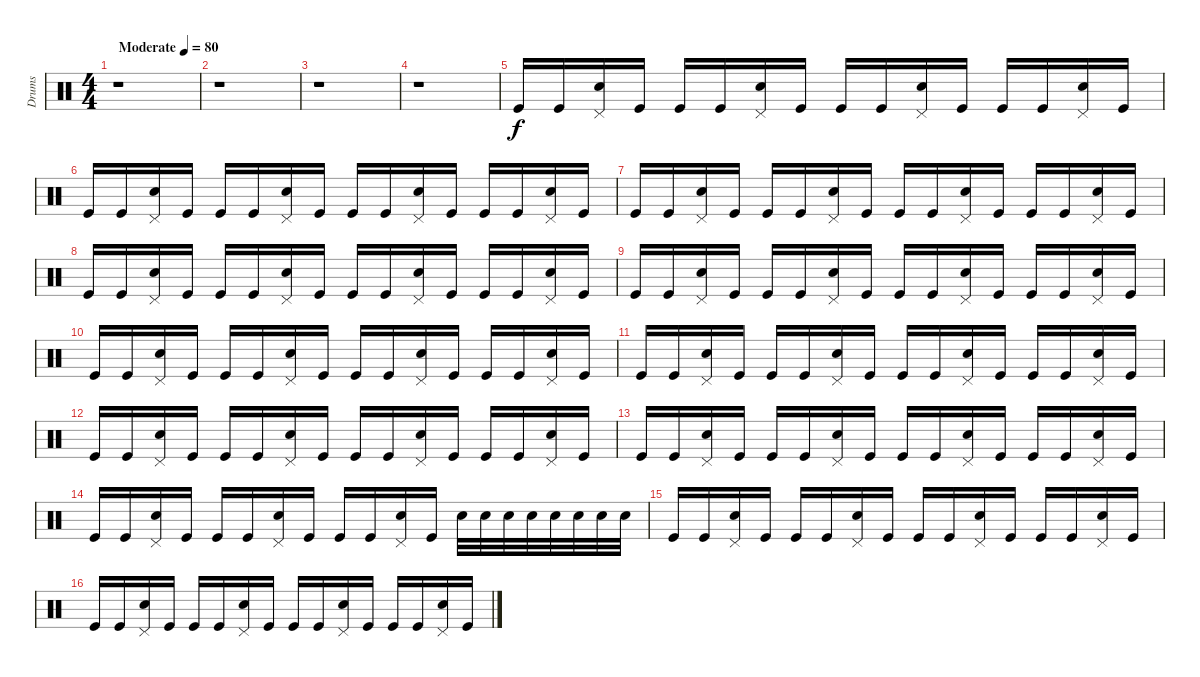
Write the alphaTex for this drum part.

\track ("Drums" "Drums") {instrument percussion}
\staff {score}
\articulation defaults
\ts (4 4)
\tempo (80 "Moderate")
\clef neutral
\ks c
r.1{dy f} |
r.1 |
r.1 |
r.1 |
"Kick (hit)".16 "Kick (hit)".16 ("Snare (hit) 2" "Pedal Hi-Hat (hit)").16 "Kick (hit)".16 "Kick (hit)".16 "Kick (hit)".16 ("Snare (hit) 2" "Pedal Hi-Hat (hit)").16 "Kick (hit)".16 "Kick (hit)".16 "Kick (hit)".16 ("Snare (hit) 2" "Pedal Hi-Hat (hit)").16 "Kick (hit)".16 "Kick (hit)".16 "Kick (hit)".16 ("Snare (hit) 2" "Pedal Hi-Hat (hit)").16 "Kick (hit)".16 |
"Kick (hit)".16 "Kick (hit)".16 ("Snare (hit) 2" "Pedal Hi-Hat (hit)").16 "Kick (hit)".16 "Kick (hit)".16 "Kick (hit)".16 ("Snare (hit) 2" "Pedal Hi-Hat (hit)").16 "Kick (hit)".16 "Kick (hit)".16 "Kick (hit)".16 ("Snare (hit) 2" "Pedal Hi-Hat (hit)").16 "Kick (hit)".16 "Kick (hit)".16 "Kick (hit)".16 ("Snare (hit) 2" "Pedal Hi-Hat (hit)").16 "Kick (hit)".16 |
"Kick (hit)".16 "Kick (hit)".16 ("Snare (hit) 2" "Pedal Hi-Hat (hit)").16 "Kick (hit)".16 "Kick (hit)".16 "Kick (hit)".16 ("Snare (hit) 2" "Pedal Hi-Hat (hit)").16 "Kick (hit)".16 "Kick (hit)".16 "Kick (hit)".16 ("Snare (hit) 2" "Pedal Hi-Hat (hit)").16 "Kick (hit)".16 "Kick (hit)".16 "Kick (hit)".16 ("Snare (hit) 2" "Pedal Hi-Hat (hit)").16 "Kick (hit)".16 |
"Kick (hit)".16 "Kick (hit)".16 ("Snare (hit) 2" "Pedal Hi-Hat (hit)").16 "Kick (hit)".16 "Kick (hit)".16 "Kick (hit)".16 ("Snare (hit) 2" "Pedal Hi-Hat (hit)").16 "Kick (hit)".16 "Kick (hit)".16 "Kick (hit)".16 ("Snare (hit) 2" "Pedal Hi-Hat (hit)").16 "Kick (hit)".16 "Kick (hit)".16 "Kick (hit)".16 ("Snare (hit) 2" "Pedal Hi-Hat (hit)").16 "Kick (hit)".16 |
"Kick (hit)".16 "Kick (hit)".16 ("Snare (hit) 2" "Pedal Hi-Hat (hit)").16 "Kick (hit)".16 "Kick (hit)".16 "Kick (hit)".16 ("Snare (hit) 2" "Pedal Hi-Hat (hit)").16 "Kick (hit)".16 "Kick (hit)".16 "Kick (hit)".16 ("Snare (hit) 2" "Pedal Hi-Hat (hit)").16 "Kick (hit)".16 "Kick (hit)".16 "Kick (hit)".16 ("Snare (hit) 2" "Pedal Hi-Hat (hit)").16 "Kick (hit)".16 |
"Kick (hit)".16 "Kick (hit)".16 ("Snare (hit) 2" "Pedal Hi-Hat (hit)").16 "Kick (hit)".16 "Kick (hit)".16 "Kick (hit)".16 ("Snare (hit) 2" "Pedal Hi-Hat (hit)").16 "Kick (hit)".16 "Kick (hit)".16 "Kick (hit)".16 ("Snare (hit) 2" "Pedal Hi-Hat (hit)").16 "Kick (hit)".16 "Kick (hit)".16 "Kick (hit)".16 ("Snare (hit) 2" "Pedal Hi-Hat (hit)").16 "Kick (hit)".16 |
"Kick (hit)".16 "Kick (hit)".16 ("Snare (hit) 2" "Pedal Hi-Hat (hit)").16 "Kick (hit)".16 "Kick (hit)".16 "Kick (hit)".16 ("Snare (hit) 2" "Pedal Hi-Hat (hit)").16 "Kick (hit)".16 "Kick (hit)".16 "Kick (hit)".16 ("Snare (hit) 2" "Pedal Hi-Hat (hit)").16 "Kick (hit)".16 "Kick (hit)".16 "Kick (hit)".16 ("Snare (hit) 2" "Pedal Hi-Hat (hit)").16 "Kick (hit)".16 |
"Kick (hit)".16 "Kick (hit)".16 ("Snare (hit) 2" "Pedal Hi-Hat (hit)").16 "Kick (hit)".16 "Kick (hit)".16 "Kick (hit)".16 ("Snare (hit) 2" "Pedal Hi-Hat (hit)").16 "Kick (hit)".16 "Kick (hit)".16 "Kick (hit)".16 ("Snare (hit) 2" "Pedal Hi-Hat (hit)").16 "Kick (hit)".16 "Kick (hit)".16 "Kick (hit)".16 ("Snare (hit) 2" "Pedal Hi-Hat (hit)").16 "Kick (hit)".16 |
"Kick (hit)".16 "Kick (hit)".16 ("Snare (hit) 2" "Pedal Hi-Hat (hit)").16 "Kick (hit)".16 "Kick (hit)".16 "Kick (hit)".16 ("Snare (hit) 2" "Pedal Hi-Hat (hit)").16 "Kick (hit)".16 "Kick (hit)".16 "Kick (hit)".16 ("Snare (hit) 2" "Pedal Hi-Hat (hit)").16 "Kick (hit)".16 "Kick (hit)".16 "Kick (hit)".16 ("Snare (hit) 2" "Pedal Hi-Hat (hit)").16 "Kick (hit)".16 |
"Kick (hit)".16 "Kick (hit)".16 ("Snare (hit) 2" "Pedal Hi-Hat (hit)").16 "Kick (hit)".16 "Kick (hit)".16 "Kick (hit)".16 ("Snare (hit) 2" "Pedal Hi-Hat (hit)").16 "Kick (hit)".16 "Kick (hit)".16 "Kick (hit)".16 ("Snare (hit) 2" "Pedal Hi-Hat (hit)").16 "Kick (hit)".16 "Snare (hit) 2".32 "Snare (hit) 2".32 "Snare (hit) 2".32 "Snare (hit) 2".32 "Snare (hit) 2".32 "Snare (hit) 2".32 "Snare (hit) 2".32 "Snare (hit) 2".32 |
"Kick (hit)".16 "Kick (hit)".16 ("Snare (hit) 2" "Pedal Hi-Hat (hit)").16 "Kick (hit)".16 "Kick (hit)".16 "Kick (hit)".16 ("Snare (hit) 2" "Pedal Hi-Hat (hit)").16 "Kick (hit)".16 "Kick (hit)".16 "Kick (hit)".16 ("Snare (hit) 2" "Pedal Hi-Hat (hit)").16 "Kick (hit)".16 "Kick (hit)".16 "Kick (hit)".16 ("Snare (hit) 2" "Pedal Hi-Hat (hit)").16 "Kick (hit)".16 |
"Kick (hit)".16 "Kick (hit)".16 ("Snare (hit) 2" "Pedal Hi-Hat (hit)").16 "Kick (hit)".16 "Kick (hit)".16 "Kick (hit)".16 ("Snare (hit) 2" "Pedal Hi-Hat (hit)").16 "Kick (hit)".16 "Kick (hit)".16 "Kick (hit)".16 ("Snare (hit) 2" "Pedal Hi-Hat (hit)").16 "Kick (hit)".16 "Kick (hit)".16 "Kick (hit)".16 ("Snare (hit) 2" "Pedal Hi-Hat (hit)").16 "Kick (hit)".16
